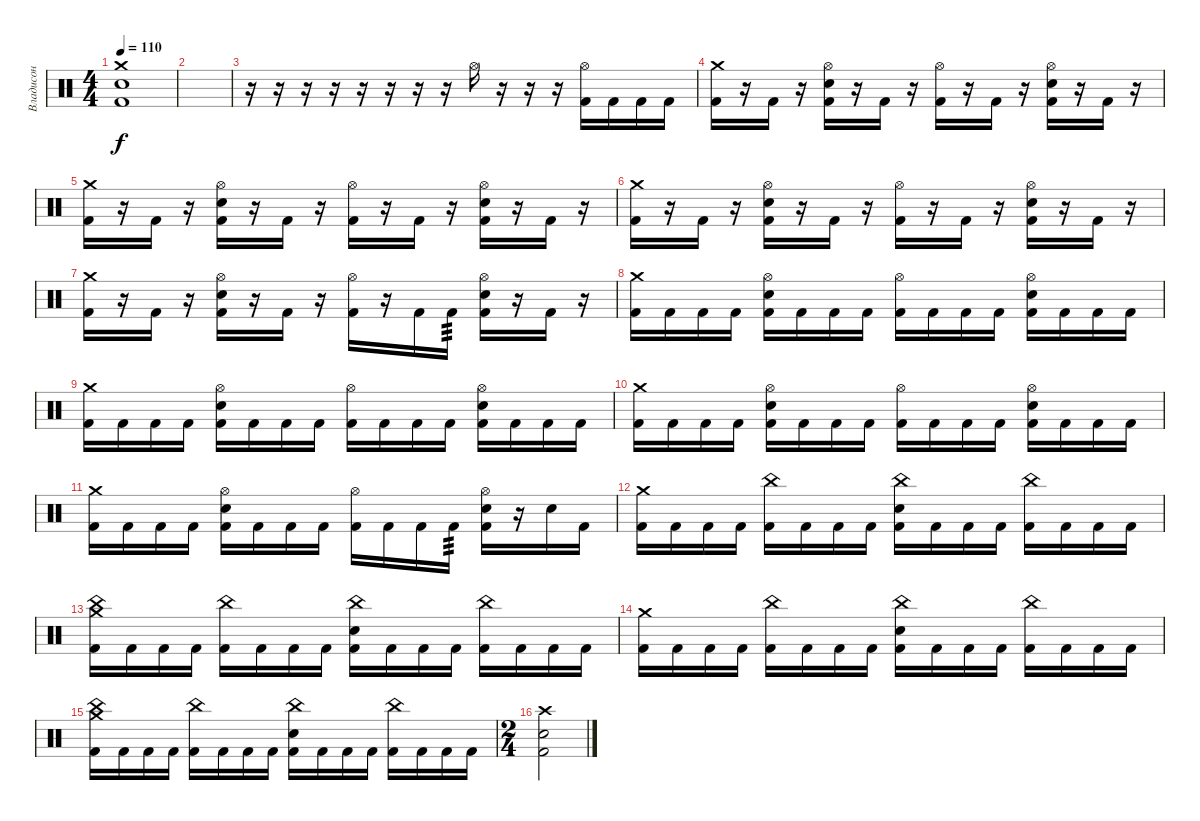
\track ("Владисон" "Владисон") {instrument percussion}
\staff
\articulation defaults
\ts (4 4)
\tempo 110
\clef neutral
\ks c
("Crash medium (hit)" "Snare (hit) 2" "Kick (hit) 2").1{dy f} |
|
r.16 r.16 r.16 r.16 r.16 r.16 r.16 r.16 "Hi-Hat (open)".16 r.16 r.16 r.16 ("Hi-Hat (open)" "Kick (hit) 2").16 "Kick (hit) 2".16 "Kick (hit) 2".16 "Kick (hit) 2".16 |
("Crash medium (hit)" "Kick (hit) 2").16 r.16 "Kick (hit) 2".16 r.16 ("Hi-Hat (open)" "Snare (hit) 2" "Kick (hit) 2").16 r.16 "Kick (hit) 2".16 r.16 ("Hi-Hat (open)" "Kick (hit) 2").16 r.16 "Kick (hit) 2".16 r.16 ("Hi-Hat (open)" "Snare (hit) 2" "Kick (hit) 2").16 r.16 "Kick (hit) 2".16 r.16 |
("Crash medium (hit)" "Kick (hit) 2").16 r.16 "Kick (hit) 2".16 r.16 ("Hi-Hat (open)" "Snare (hit) 2" "Kick (hit) 2").16 r.16 "Kick (hit) 2".16 r.16 ("Hi-Hat (open)" "Kick (hit) 2").16 r.16 "Kick (hit) 2".16 r.16 ("Hi-Hat (open)" "Snare (hit) 2" "Kick (hit) 2").16 r.16 "Kick (hit) 2".16 r.16 |
("Crash medium (hit)" "Kick (hit) 2").16 r.16 "Kick (hit) 2".16 r.16 ("Hi-Hat (open)" "Snare (hit) 2" "Kick (hit) 2").16 r.16 "Kick (hit) 2".16 r.16 ("Hi-Hat (open)" "Kick (hit) 2").16 r.16 "Kick (hit) 2".16 r.16 ("Hi-Hat (open)" "Snare (hit) 2" "Kick (hit) 2").16 r.16 "Kick (hit) 2".16 r.16 |
("Crash medium (hit)" "Kick (hit) 2").16 r.16 "Kick (hit) 2".16 r.16 ("Hi-Hat (open)" "Snare (hit) 2" "Kick (hit) 2").16 r.16 "Kick (hit) 2".16 r.16 ("Hi-Hat (open)" "Kick (hit) 2").16 r.16 "Kick (hit) 2".16 "Kick (hit) 2".16{tp 3} ("Hi-Hat (open)" "Snare (hit) 2" "Kick (hit) 2").16 r.16 "Kick (hit) 2".16 r.16 |
("Crash medium (hit)" "Kick (hit) 2").16 "Kick (hit) 2".16 "Kick (hit) 2".16 "Kick (hit) 2".16 ("Hi-Hat (open)" "Snare (hit) 2" "Kick (hit) 2").16 "Kick (hit) 2".16 "Kick (hit) 2".16 "Kick (hit) 2".16 ("Hi-Hat (open)" "Kick (hit) 2").16 "Kick (hit) 2".16 "Kick (hit) 2".16 "Kick (hit) 2".16 ("Hi-Hat (open)" "Snare (hit) 2" "Kick (hit) 2").16 "Kick (hit) 2".16 "Kick (hit) 2".16 "Kick (hit) 2".16 |
("Crash medium (hit)" "Kick (hit) 2").16 "Kick (hit) 2".16 "Kick (hit) 2".16 "Kick (hit) 2".16 ("Hi-Hat (open)" "Snare (hit) 2" "Kick (hit) 2").16 "Kick (hit) 2".16 "Kick (hit) 2".16 "Kick (hit) 2".16 ("Hi-Hat (open)" "Kick (hit) 2").16 "Kick (hit) 2".16 "Kick (hit) 2".16 "Kick (hit) 2".16 ("Hi-Hat (open)" "Snare (hit) 2" "Kick (hit) 2").16 "Kick (hit) 2".16 "Kick (hit) 2".16 "Kick (hit) 2".16 |
("Crash medium (hit)" "Kick (hit) 2").16 "Kick (hit) 2".16 "Kick (hit) 2".16 "Kick (hit) 2".16 ("Hi-Hat (open)" "Snare (hit) 2" "Kick (hit) 2").16 "Kick (hit) 2".16 "Kick (hit) 2".16 "Kick (hit) 2".16 ("Hi-Hat (open)" "Kick (hit) 2").16 "Kick (hit) 2".16 "Kick (hit) 2".16 "Kick (hit) 2".16 ("Hi-Hat (open)" "Snare (hit) 2" "Kick (hit) 2").16 "Kick (hit) 2".16 "Kick (hit) 2".16 "Kick (hit) 2".16 |
("Crash medium (hit)" "Kick (hit) 2").16 "Kick (hit) 2".16 "Kick (hit) 2".16 "Kick (hit) 2".16 ("Hi-Hat (open)" "Snare (hit) 2" "Kick (hit) 2").16 "Kick (hit) 2".16 "Kick (hit) 2".16 "Kick (hit) 2".16 ("Hi-Hat (open)" "Kick (hit) 2").16 "Kick (hit) 2".16 "Kick (hit) 2".16 "Kick (hit) 2".16{tp 3} ("Hi-Hat (open)" "Snare (hit) 2" "Kick (hit) 2").16 r.16 "Snare (hit) 2".16 "Kick (hit) 2".16 |
("Crash medium (hit)" "Kick (hit) 2").16 "Kick (hit) 2".16 "Kick (hit) 2".16 "Kick (hit) 2".16 ("China (hit)" "Kick (hit) 2").16 "Kick (hit) 2".16 "Kick (hit) 2".16 "Kick (hit) 2".16 ("China (hit)" "Snare (hit) 2" "Kick (hit) 2").16 "Kick (hit) 2".16 "Kick (hit) 2".16 "Kick (hit) 2".16 ("China (hit)" "Kick (hit) 2").16 "Kick (hit) 2".16 "Kick (hit) 2".16 "Kick (hit) 2".16 |
("Crash medium (hit)" "China (hit)" "Kick (hit) 2").16 "Kick (hit) 2".16 "Kick (hit) 2".16 "Kick (hit) 2".16 ("China (hit)" "Kick (hit) 2").16 "Kick (hit) 2".16 "Kick (hit) 2".16 "Kick (hit) 2".16 ("China (hit)" "Snare (hit) 2" "Kick (hit) 2").16 "Kick (hit) 2".16 "Kick (hit) 2".16 "Kick (hit) 2".16 ("China (hit)" "Kick (hit) 2").16 "Kick (hit) 2".16 "Kick (hit) 2".16 "Kick (hit) 2".16 |
("Crash medium (hit)" "Kick (hit) 2").16 "Kick (hit) 2".16 "Kick (hit) 2".16 "Kick (hit) 2".16 ("China (hit)" "Kick (hit) 2").16 "Kick (hit) 2".16 "Kick (hit) 2".16 "Kick (hit) 2".16 ("China (hit)" "Snare (hit) 2" "Kick (hit) 2").16 "Kick (hit) 2".16 "Kick (hit) 2".16 "Kick (hit) 2".16 ("China (hit)" "Kick (hit) 2").16 "Kick (hit) 2".16 "Kick (hit) 2".16 "Kick (hit) 2".16 |
("Crash medium (hit)" "China (hit)" "Kick (hit) 2").16 "Kick (hit) 2".16 "Kick (hit) 2".16 "Kick (hit) 2".16 ("China (hit)" "Kick (hit) 2").16 "Kick (hit) 2".16 "Kick (hit) 2".16 "Kick (hit) 2".16 ("China (hit)" "Snare (hit) 2" "Kick (hit) 2").16 "Kick (hit) 2".16 "Kick (hit) 2".16 "Kick (hit) 2".16 ("China (hit)" "Kick (hit) 2").16 "Kick (hit) 2".16 "Kick (hit) 2".16 "Kick (hit) 2".16 |
\ts (2 4)
("Crash high (hit)" "Snare (hit) 2" "Kick (hit) 2").2
